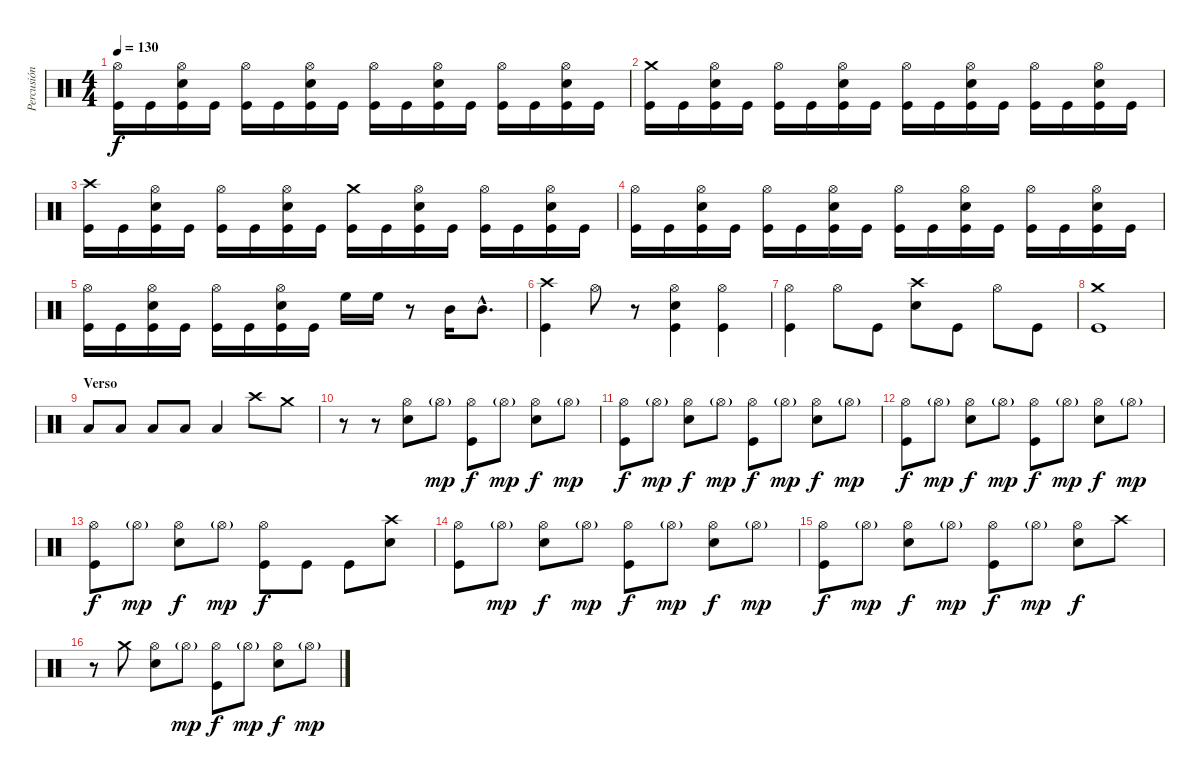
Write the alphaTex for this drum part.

\track ("Percusión" "Percusión") {instrument percussion}
\staff {score}
\articulation defaults
\ts (4 4)
\tempo 130
\clef neutral
\ks c
("Hi-Hat (open)" "Kick (hit)").16{dy f} "Kick (hit)".16 ("Hi-Hat (open)" "Electric Snare (hit)" "Kick (hit)").16 "Kick (hit)".16 ("Hi-Hat (open)" "Kick (hit)").16 "Kick (hit)".16 ("Hi-Hat (open)" "Electric Snare (hit)" "Kick (hit)").16 "Kick (hit)".16 ("Hi-Hat (open)" "Kick (hit)").16 "Kick (hit)".16 ("Hi-Hat (open)" "Electric Snare (hit)" "Kick (hit)").16 "Kick (hit)".16 ("Hi-Hat (open)" "Kick (hit)").16 "Kick (hit)".16 ("Hi-Hat (open)" "Electric Snare (hit)" "Kick (hit)").16 "Kick (hit)".16 |
("Crash medium (hit)" "Kick (hit)").16 "Kick (hit)".16 ("Hi-Hat (open)" "Electric Snare (hit)" "Kick (hit)").16 "Kick (hit)".16 ("Hi-Hat (open)" "Kick (hit)").16 "Kick (hit)".16 ("Hi-Hat (open)" "Electric Snare (hit)" "Kick (hit)").16 "Kick (hit)".16 ("Hi-Hat (open)" "Kick (hit)").16 "Kick (hit)".16 ("Hi-Hat (open)" "Electric Snare (hit)" "Kick (hit)").16 "Kick (hit)".16 ("Hi-Hat (open)" "Kick (hit)").16 "Kick (hit)".16 ("Hi-Hat (open)" "Electric Snare (hit)" "Kick (hit)").16 "Kick (hit)".16 |
("Crash high (hit)" "Kick (hit)").16 "Kick (hit)".16 ("Hi-Hat (open)" "Electric Snare (hit)" "Kick (hit)").16 "Kick (hit)".16 ("Hi-Hat (open)" "Kick (hit)").16 "Kick (hit)".16 ("Hi-Hat (open)" "Electric Snare (hit)" "Kick (hit)").16 "Kick (hit)".16 ("Crash medium (hit)" "Kick (hit)").16 "Kick (hit)".16 ("Hi-Hat (open)" "Electric Snare (hit)" "Kick (hit)").16 "Kick (hit)".16 ("Hi-Hat (open)" "Kick (hit)").16 "Kick (hit)".16 ("Hi-Hat (open)" "Electric Snare (hit)" "Kick (hit)").16 "Kick (hit)".16 |
("Hi-Hat (open)" "Kick (hit)").16 "Kick (hit)".16 ("Hi-Hat (open)" "Electric Snare (hit)" "Kick (hit)").16 "Kick (hit)".16 ("Hi-Hat (open)" "Kick (hit)").16 "Kick (hit)".16 ("Hi-Hat (open)" "Electric Snare (hit)" "Kick (hit)").16 "Kick (hit)".16 ("Hi-Hat (open)" "Kick (hit)").16 "Kick (hit)".16 ("Hi-Hat (open)" "Electric Snare (hit)" "Kick (hit)").16 "Kick (hit)".16 ("Hi-Hat (open)" "Kick (hit)").16 "Kick (hit)".16 ("Hi-Hat (open)" "Electric Snare (hit)" "Kick (hit)").16 "Kick (hit)".16 |
("Hi-Hat (open)" "Kick (hit)").16 "Kick (hit)".16 ("Hi-Hat (open)" "Electric Snare (hit)" "Kick (hit)").16 "Kick (hit)".16 ("Hi-Hat (open)" "Kick (hit)").16 "Kick (hit)".16 ("Hi-Hat (open)" "Electric Snare (hit)" "Kick (hit)").16 "Kick (hit)".16 "High Floor Tom (hit)".16 "High Floor Tom (hit)".16 r.8 "Mid Tom (hit)".16 "Mid Tom (hit)"{hac}.8{d} |
("Crash high (hit)" "Kick (hit)").4 "Hi-Hat (open)".8 r.8 ("Hi-Hat (open)" "Electric Snare (hit)" "Kick (hit)").4 ("Hi-Hat (open)" "Kick (hit)").4 |
("Hi-Hat (open)" "Kick (hit)").4 "Hi-Hat (open)".8 "Kick (hit)".8 ("Crash high (hit)" "Electric Snare (hit)").8 "Kick (hit)".8 "Hi-Hat (open)".8 "Kick (hit)".8 |
("Crash medium (hit)" "Kick (hit)").1 |
\section ("" "Verso")
"Low Tom (hit)".8 "Low Tom (hit)".8 "Low Tom (hit)".8 "Low Tom (hit)".8 "Low Tom (hit)".4 "Crash high (hit)".8 "Crash medium (hit)".8 |
r.8 r.8 ("Hi-Hat (open)" "Electric Snare (hit)").8 "Hi-Hat (open)"{g}.8{dy mp} ("Hi-Hat (open)" "Kick (hit)").8{dy f} "Hi-Hat (open)"{g}.8{dy mp} ("Hi-Hat (open)" "Electric Snare (hit)").8{dy f} "Hi-Hat (open)"{g}.8{dy mp} |
("Hi-Hat (open)" "Kick (hit)").8{dy f} "Hi-Hat (open)"{g}.8{dy mp} ("Hi-Hat (open)" "Electric Snare (hit)").8{dy f} "Hi-Hat (open)"{g}.8{dy mp} ("Hi-Hat (open)" "Kick (hit)").8{dy f} "Hi-Hat (open)"{g}.8{dy mp} ("Hi-Hat (open)" "Electric Snare (hit)").8{dy f} "Hi-Hat (open)"{g}.8{dy mp} |
("Hi-Hat (open)" "Kick (hit)").8{dy f} "Hi-Hat (open)"{g}.8{dy mp} ("Hi-Hat (open)" "Electric Snare (hit)").8{dy f} "Hi-Hat (open)"{g}.8{dy mp} ("Hi-Hat (open)" "Kick (hit)").8{dy f} "Hi-Hat (open)"{g}.8{dy mp} ("Hi-Hat (open)" "Electric Snare (hit)").8{dy f} "Hi-Hat (open)"{g}.8{dy mp} |
("Hi-Hat (open)" "Kick (hit)").8{dy f} "Hi-Hat (open)"{g}.8{dy mp} ("Hi-Hat (open)" "Electric Snare (hit)").8{dy f} "Hi-Hat (open)"{g}.8{dy mp} ("Hi-Hat (open)" "Kick (hit)").8{dy f} "Kick (hit)".8 "Kick (hit)".8 ("Crash high (hit)" "Electric Snare (hit)").8 |
("Hi-Hat (open)" "Kick (hit)").8 "Hi-Hat (open)"{g}.8{dy mp} ("Hi-Hat (open)" "Electric Snare (hit)").8{dy f} "Hi-Hat (open)"{g}.8{dy mp} ("Hi-Hat (open)" "Kick (hit)").8{dy f} "Hi-Hat (open)"{g}.8{dy mp} ("Hi-Hat (open)" "Electric Snare (hit)").8{dy f} "Hi-Hat (open)"{g}.8{dy mp} |
("Hi-Hat (open)" "Kick (hit)").8{dy f} "Hi-Hat (open)"{g}.8{dy mp} ("Hi-Hat (open)" "Electric Snare (hit)").8{dy f} "Hi-Hat (open)"{g}.8{dy mp} ("Hi-Hat (open)" "Kick (hit)").8{dy f} "Hi-Hat (open)"{g}.8{dy mp} ("Hi-Hat (open)" "Electric Snare (hit)").8{dy f} "Crash high (hit)".8 |
r.8 "Crash medium (hit)".8 ("Hi-Hat (open)" "Electric Snare (hit)").8 "Hi-Hat (open)"{g}.8{dy mp} ("Hi-Hat (open)" "Kick (hit)").8{dy f} "Hi-Hat (open)"{g}.8{dy mp} ("Hi-Hat (open)" "Electric Snare (hit)").8{dy f} "Hi-Hat (open)"{g}.8{dy mp}
